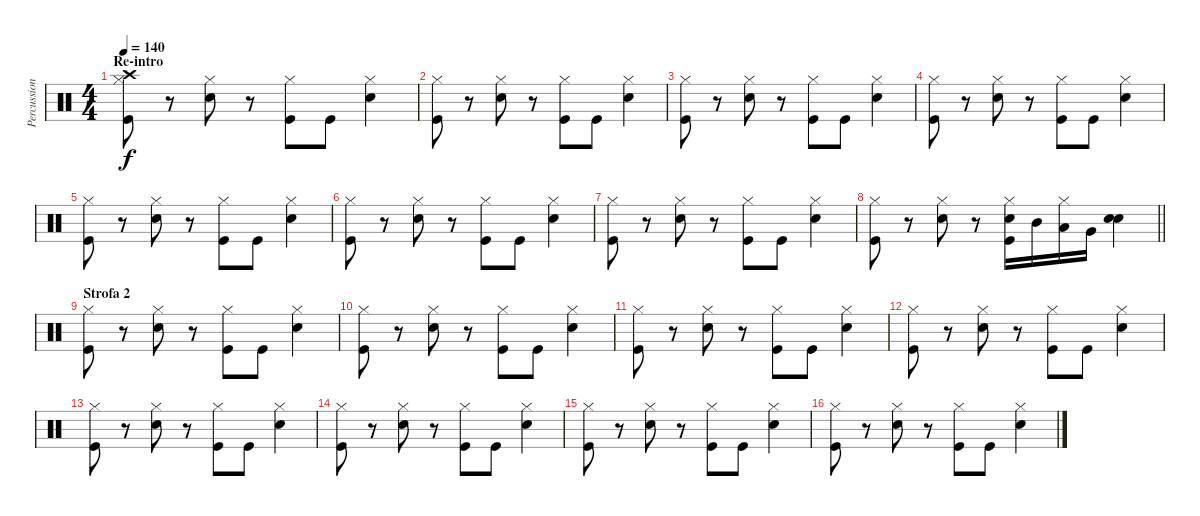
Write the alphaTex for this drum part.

\track ("Percussioni" "Percussion") {instrument percussion}
\staff {score}
\articulation defaults
\ts (4 4)
\section ("" "Re-intro")
\tempo 140
\clef neutral
\ks c
("Crash high (hit)" "Hi-Hat (closed)" "Kick (hit)").8{dy f} r.8 ("Hi-Hat (closed)" "Snare (hit) 2").8 r.8 ("Hi-Hat (closed)" "Kick (hit)").8 "Kick (hit)".8 ("Hi-Hat (closed)" "Snare (hit) 2").4 |
("Hi-Hat (closed)" "Kick (hit)").8 r.8 ("Hi-Hat (closed)" "Snare (hit) 2").8 r.8 ("Hi-Hat (closed)" "Kick (hit)").8 "Kick (hit)".8 ("Hi-Hat (closed)" "Snare (hit) 2").4 |
("Hi-Hat (closed)" "Kick (hit)").8 r.8 ("Hi-Hat (closed)" "Snare (hit) 2").8 r.8 ("Hi-Hat (closed)" "Kick (hit)").8 "Kick (hit)".8 ("Hi-Hat (closed)" "Snare (hit) 2").4 |
("Hi-Hat (closed)" "Kick (hit)").8 r.8 ("Hi-Hat (closed)" "Snare (hit) 2").8 r.8 ("Hi-Hat (closed)" "Kick (hit)").8 "Kick (hit)".8 ("Hi-Hat (closed)" "Snare (hit) 2").4 |
("Hi-Hat (closed)" "Kick (hit)").8 r.8 ("Hi-Hat (closed)" "Snare (hit) 2").8 r.8 ("Hi-Hat (closed)" "Kick (hit)").8 "Kick (hit)".8 ("Hi-Hat (closed)" "Snare (hit) 2").4 |
("Hi-Hat (closed)" "Kick (hit)").8 r.8 ("Hi-Hat (closed)" "Snare (hit) 2").8 r.8 ("Hi-Hat (closed)" "Kick (hit)").8 "Kick (hit)".8 ("Hi-Hat (closed)" "Snare (hit) 2").4 |
("Hi-Hat (closed)" "Kick (hit)").8 r.8 ("Hi-Hat (closed)" "Snare (hit) 2").8 r.8 ("Hi-Hat (closed)" "Kick (hit)").8 "Kick (hit)".8 ("Hi-Hat (closed)" "Snare (hit) 2").4 |
\barLineRight lightlight
("Hi-Hat (closed)" "Kick (hit)").8 r.8 ("Hi-Hat (closed)" "Snare (hit) 2").8 r.8 ("Hi-Hat (closed)" "Snare (hit) 2" "Kick (hit)").16 "Mid Tom (hit)".16 ("Hi-Hat (closed)" "Low Tom (hit)").16 "Very Low Tom (hit)".16 ("Snare (hit) 2" "Snare (hit) 2").4 |
\section ("" "Strofa 2")
("Hi-Hat (closed)" "Kick (hit)").8 r.8 ("Hi-Hat (closed)" "Snare (hit) 2").8 r.8 ("Hi-Hat (closed)" "Kick (hit)").8 "Kick (hit)".8 ("Hi-Hat (closed)" "Snare (hit) 2").4 |
("Hi-Hat (closed)" "Kick (hit)").8 r.8 ("Hi-Hat (closed)" "Snare (hit) 2").8 r.8 ("Hi-Hat (closed)" "Kick (hit)").8 "Kick (hit)".8 ("Hi-Hat (closed)" "Snare (hit) 2").4 |
("Hi-Hat (closed)" "Kick (hit)").8 r.8 ("Hi-Hat (closed)" "Snare (hit) 2").8 r.8 ("Hi-Hat (closed)" "Kick (hit)").8 "Kick (hit)".8 ("Hi-Hat (closed)" "Snare (hit) 2").4 |
("Hi-Hat (closed)" "Kick (hit)").8 r.8 ("Hi-Hat (closed)" "Snare (hit) 2").8 r.8 ("Hi-Hat (closed)" "Kick (hit)").8 "Kick (hit)".8 ("Hi-Hat (closed)" "Snare (hit) 2").4 |
("Hi-Hat (closed)" "Kick (hit)").8 r.8 ("Hi-Hat (closed)" "Snare (hit) 2").8 r.8 ("Hi-Hat (closed)" "Kick (hit)").8 "Kick (hit)".8 ("Hi-Hat (closed)" "Snare (hit) 2").4 |
("Hi-Hat (closed)" "Kick (hit)").8 r.8 ("Hi-Hat (closed)" "Snare (hit) 2").8 r.8 ("Hi-Hat (closed)" "Kick (hit)").8 "Kick (hit)".8 ("Hi-Hat (closed)" "Snare (hit) 2").4 |
("Hi-Hat (closed)" "Kick (hit)").8 r.8 ("Hi-Hat (closed)" "Snare (hit) 2").8 r.8 ("Hi-Hat (closed)" "Kick (hit)").8 "Kick (hit)".8 ("Hi-Hat (closed)" "Snare (hit) 2").4 |
("Hi-Hat (closed)" "Kick (hit)").8 r.8 ("Hi-Hat (closed)" "Snare (hit) 2").8 r.8 ("Hi-Hat (closed)" "Kick (hit)").8 "Kick (hit)".8 ("Hi-Hat (closed)" "Snare (hit) 2").4
